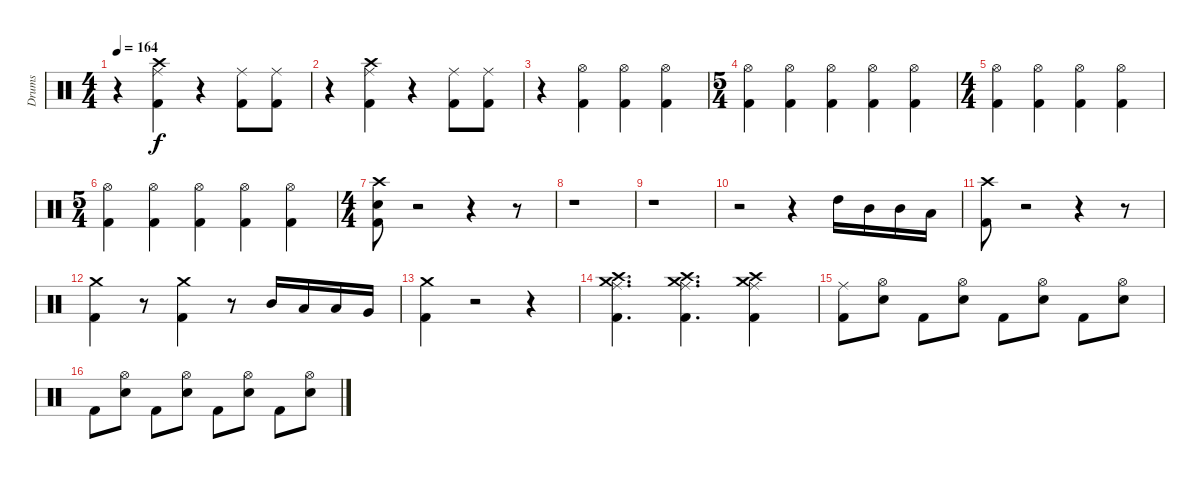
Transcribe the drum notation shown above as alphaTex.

\track ("Drums " "Drums ") {instrument percussion}
\staff {score}
\articulation defaults
\ts (4 4)
\tempo 164
\clef neutral
\ks c
r.4{dy f} ("Ride (middle)" "Crash high (hit)" "Kick (hit) 2").4 r.4 ("Kick (hit) 2" "Ride (middle)").8 ("Kick (hit) 2" "Ride (middle)").8 |
r.4 ("Ride (middle)" "Crash high (hit)" "Kick (hit) 2").4 r.4 ("Kick (hit) 2" "Ride (middle)").8 ("Kick (hit) 2" "Ride (middle)").8 |
r.4 ("Hi-Hat (open)" "Kick (hit) 2").4 ("Hi-Hat (open)" "Kick (hit) 2").4 ("Kick (hit) 2" "Hi-Hat (open)").4 |
\ts (5 4)
("Kick (hit) 2" "Hi-Hat (open)").4 ("Hi-Hat (open)" "Kick (hit) 2").4 ("Hi-Hat (open)" "Kick (hit) 2").4 ("Hi-Hat (open)" "Kick (hit) 2").4 ("Kick (hit) 2" "Hi-Hat (open)").4 |
\ts (4 4)
("Kick (hit) 2" "Hi-Hat (open)").4 ("Hi-Hat (open)" "Kick (hit) 2").4 ("Hi-Hat (open)" "Kick (hit) 2").4 ("Hi-Hat (open)" "Kick (hit) 2").4 |
\ts (5 4)
("Kick (hit) 2" "Hi-Hat (open)").4 ("Kick (hit) 2" "Hi-Hat (open)").4 ("Hi-Hat (open)" "Kick (hit) 2").4 ("Hi-Hat (open)" "Kick (hit) 2").4 ("Hi-Hat (open)" "Kick (hit) 2").4 |
\ts (4 4)
("Electric Snare (hit)" "Kick (hit) 2" "Crash high (hit)").8 r.2 r.4 r.8 |
r.1 |
r.1 |
r.2 r.4 "High Tom (hit)".16 "Mid Tom (hit)".16 "Mid Tom (hit)".16 "Low Tom (hit)".16 |
("Kick (hit) 2" "Crash high (hit)").8 r.2 r.4 r.8 |
("Kick (hit) 2" "Crash medium (hit)").4 r.8 ("Kick (hit) 2" "Crash medium (hit)").4 r.8 "Mid Tom (hit)".16 "Low Tom (hit)".16 "Low Tom (hit)".16 "Very Low Tom (hit)".16 |
("Kick (hit) 2" "Crash medium (hit)").4 r.2 r.4 |
("Kick (hit) 2" "Crash high (hit)" "Ride (middle)" "Crash medium (hit)").4{d} ("Ride (middle)" "Crash high (hit)" "Kick (hit) 2" "Crash medium (hit)").4{d} ("Crash medium (hit)" "Ride (middle)" "Crash high (hit)" "Kick (hit) 2").4 |
("Kick (hit) 2" "Ride (middle)").8 ("Snare (hit) 2" "Hi-Hat (open)").8 "Kick (hit) 2".8 ("Snare (hit) 2" "Hi-Hat (open)").8 "Kick (hit) 2".8 ("Snare (hit) 2" "Hi-Hat (open)").8 "Kick (hit) 2".8 ("Snare (hit) 2" "Hi-Hat (open)").8 |
"Kick (hit) 2".8 ("Snare (hit) 2" "Hi-Hat (open)").8 "Kick (hit) 2".8 ("Snare (hit) 2" "Hi-Hat (open)").8 "Kick (hit) 2".8 ("Snare (hit) 2" "Hi-Hat (open)").8 "Kick (hit) 2".8 ("Snare (hit) 2" "Hi-Hat (open)").8
